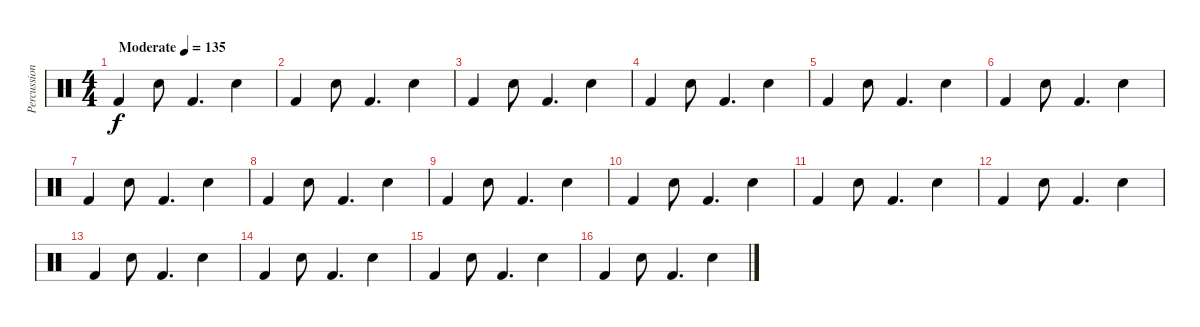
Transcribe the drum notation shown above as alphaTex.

\track ("Percussion" "Percussion") {instrument percussion}
\staff {score}
\articulation defaults
\ts (4 4)
\tempo (135 "Moderate")
\clef neutral
\ks c "Kick (hit) 2".4{dy f} "Snare (hit) 2".8 "Kick (hit) 2".4{d} "Snare (hit) 2".4
|
"Kick (hit) 2".4 "Snare (hit) 2".8 "Kick (hit) 2".4{d} "Snare (hit) 2".4 |
"Kick (hit) 2".4 "Snare (hit) 2".8 "Kick (hit) 2".4{d} "Snare (hit) 2".4 |
"Kick (hit) 2".4 "Snare (hit) 2".8 "Kick (hit) 2".4{d} "Snare (hit) 2".4 |
"Kick (hit) 2".4 "Snare (hit) 2".8 "Kick (hit) 2".4{d} "Snare (hit) 2".4 |
"Kick (hit) 2".4 "Snare (hit) 2".8 "Kick (hit) 2".4{d} "Snare (hit) 2".4 |
"Kick (hit) 2".4 "Snare (hit) 2".8 "Kick (hit) 2".4{d} "Snare (hit) 2".4 |
"Kick (hit) 2".4 "Snare (hit) 2".8 "Kick (hit) 2".4{d} "Snare (hit) 2".4 |
"Kick (hit) 2".4 "Snare (hit) 2".8 "Kick (hit) 2".4{d} "Snare (hit) 2".4 |
"Kick (hit) 2".4 "Snare (hit) 2".8 "Kick (hit) 2".4{d} "Snare (hit) 2".4 |
"Kick (hit) 2".4 "Snare (hit) 2".8 "Kick (hit) 2".4{d} "Snare (hit) 2".4 |
"Kick (hit) 2".4 "Snare (hit) 2".8 "Kick (hit) 2".4{d} "Snare (hit) 2".4 |
"Kick (hit) 2".4 "Snare (hit) 2".8 "Kick (hit) 2".4{d} "Snare (hit) 2".4 |
"Kick (hit) 2".4 "Snare (hit) 2".8 "Kick (hit) 2".4{d} "Snare (hit) 2".4 |
"Kick (hit) 2".4 "Snare (hit) 2".8 "Kick (hit) 2".4{d} "Snare (hit) 2".4 |
"Kick (hit) 2".4 "Snare (hit) 2".8 "Kick (hit) 2".4{d} "Snare (hit) 2".4
